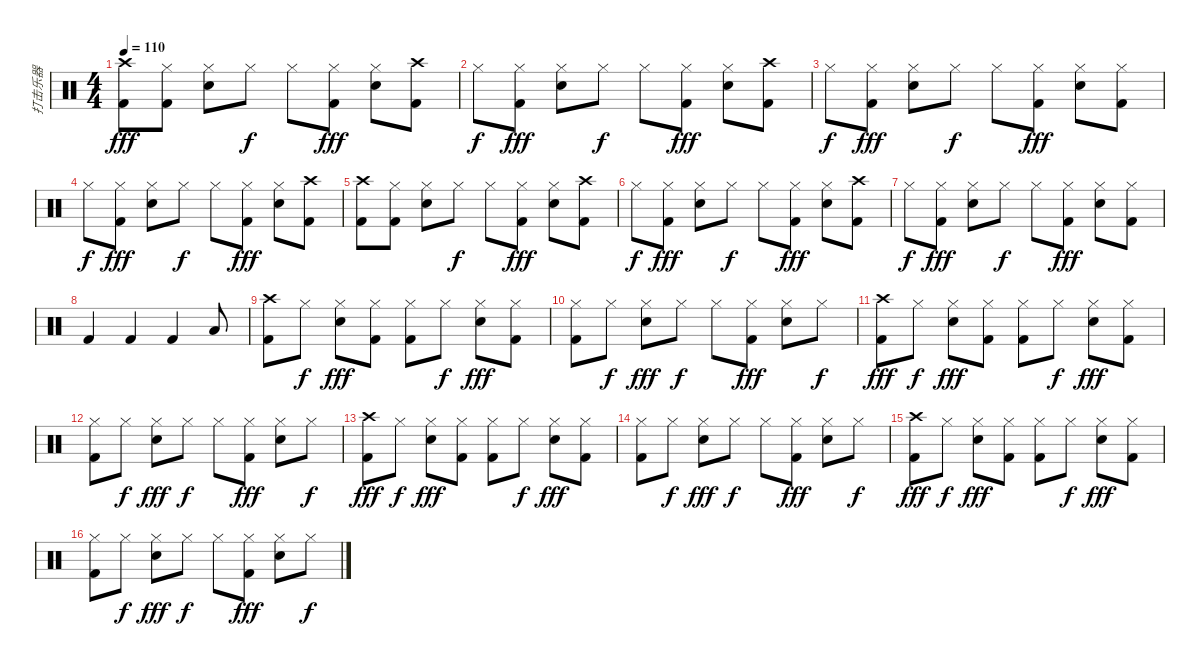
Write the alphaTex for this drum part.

\track ("打击乐器" "打击乐器") {instrument percussion}
\staff {score}
\articulation defaults
\ts (4 4)
\tempo 110
\clef neutral
\ks c
("Crash high (hit)" "Kick (hit) 2").8{dy fff} ("Hi-Hat (closed)" "Kick (hit) 2").8 ("Hi-Hat (closed)" "Electric Snare (hit)").8 "Hi-Hat (closed)".8{dy f} "Hi-Hat (closed)".8 ("Hi-Hat (closed)" "Kick (hit) 2").8{dy fff} ("Hi-Hat (closed)" "Electric Snare (hit)").8 ("Crash high (hit)" "Kick (hit) 2").8 |
"Hi-Hat (closed)".8{dy f} ("Hi-Hat (closed)" "Kick (hit) 2").8{dy fff} ("Hi-Hat (closed)" "Electric Snare (hit)").8 "Hi-Hat (closed)".8{dy f} "Hi-Hat (closed)".8 ("Hi-Hat (closed)" "Kick (hit) 2").8{dy fff} ("Hi-Hat (closed)" "Electric Snare (hit)").8 ("Crash high (hit)" "Kick (hit) 2").8 |
"Hi-Hat (closed)".8{dy f} ("Hi-Hat (closed)" "Kick (hit) 2").8{dy fff} ("Hi-Hat (closed)" "Electric Snare (hit)").8 "Hi-Hat (closed)".8{dy f} "Hi-Hat (closed)".8 ("Hi-Hat (closed)" "Kick (hit) 2").8{dy fff} ("Hi-Hat (closed)" "Electric Snare (hit)").8 ("Hi-Hat (closed)" "Kick (hit) 2").8 |
"Hi-Hat (closed)".8{dy f} ("Hi-Hat (closed)" "Kick (hit) 2").8{dy fff} ("Hi-Hat (closed)" "Electric Snare (hit)").8 "Hi-Hat (closed)".8{dy f} "Hi-Hat (closed)".8 ("Hi-Hat (closed)" "Kick (hit) 2").8{dy fff} ("Hi-Hat (closed)" "Electric Snare (hit)").8 ("Crash high (hit)" "Kick (hit) 2").8 |
("Crash high (hit)" "Kick (hit) 2").8 ("Hi-Hat (closed)" "Kick (hit) 2").8 ("Hi-Hat (closed)" "Electric Snare (hit)").8 "Hi-Hat (closed)".8{dy f} "Hi-Hat (closed)".8 ("Hi-Hat (closed)" "Kick (hit) 2").8{dy fff} ("Hi-Hat (closed)" "Electric Snare (hit)").8 ("Crash high (hit)" "Kick (hit) 2").8 |
"Hi-Hat (closed)".8{dy f} ("Hi-Hat (closed)" "Kick (hit) 2").8{dy fff} ("Hi-Hat (closed)" "Electric Snare (hit)").8 "Hi-Hat (closed)".8{dy f} "Hi-Hat (closed)".8 ("Hi-Hat (closed)" "Kick (hit) 2").8{dy fff} ("Hi-Hat (closed)" "Electric Snare (hit)").8 ("Crash high (hit)" "Kick (hit) 2").8 |
"Hi-Hat (closed)".8{dy f} ("Hi-Hat (closed)" "Kick (hit) 2").8{dy fff} ("Hi-Hat (closed)" "Electric Snare (hit)").8 "Hi-Hat (closed)".8{dy f} "Hi-Hat (closed)".8 ("Hi-Hat (closed)" "Kick (hit) 2").8{dy fff} ("Hi-Hat (closed)" "Electric Snare (hit)").8 ("Hi-Hat (closed)" "Kick (hit) 2").8 |
"Kick (hit) 2".4 "Kick (hit) 2".4 "Kick (hit) 2".4 "Low Floor Tom (hit)".8 |
("Crash high (hit)" "Kick (hit) 2").8 "Hi-Hat (closed)".8{dy f} ("Hi-Hat (closed)" "Electric Snare (hit)").8{dy fff} ("Hi-Hat (closed)" "Kick (hit) 2").8 ("Hi-Hat (closed)" "Kick (hit) 2").8 "Hi-Hat (closed)".8{dy f} ("Hi-Hat (closed)" "Electric Snare (hit)").8{dy fff} ("Hi-Hat (closed)" "Kick (hit) 2").8 |
("Hi-Hat (closed)" "Kick (hit) 2").8 "Hi-Hat (closed)".8{dy f} ("Hi-Hat (closed)" "Electric Snare (hit)").8{dy fff} "Hi-Hat (closed)".8{dy f} "Hi-Hat (closed)".8 ("Hi-Hat (closed)" "Kick (hit) 2").8{dy fff} ("Hi-Hat (closed)" "Electric Snare (hit)").8 "Hi-Hat (closed)".8{dy f} |
("Crash high (hit)" "Kick (hit) 2").8{dy fff} "Hi-Hat (closed)".8{dy f} ("Hi-Hat (closed)" "Electric Snare (hit)").8{dy fff} ("Hi-Hat (closed)" "Kick (hit) 2").8 ("Hi-Hat (closed)" "Kick (hit) 2").8 "Hi-Hat (closed)".8{dy f} ("Hi-Hat (closed)" "Electric Snare (hit)").8{dy fff} ("Hi-Hat (closed)" "Kick (hit) 2").8 |
("Hi-Hat (closed)" "Kick (hit) 2").8 "Hi-Hat (closed)".8{dy f} ("Hi-Hat (closed)" "Electric Snare (hit)").8{dy fff} "Hi-Hat (closed)".8{dy f} "Hi-Hat (closed)".8 ("Hi-Hat (closed)" "Kick (hit) 2").8{dy fff} ("Hi-Hat (closed)" "Electric Snare (hit)").8 "Hi-Hat (closed)".8{dy f} |
("Crash high (hit)" "Kick (hit) 2").8{dy fff} "Hi-Hat (closed)".8{dy f} ("Hi-Hat (closed)" "Electric Snare (hit)").8{dy fff} ("Hi-Hat (closed)" "Kick (hit) 2").8 ("Hi-Hat (closed)" "Kick (hit) 2").8 "Hi-Hat (closed)".8{dy f} ("Hi-Hat (closed)" "Electric Snare (hit)").8{dy fff} ("Hi-Hat (closed)" "Kick (hit) 2").8 |
("Hi-Hat (closed)" "Kick (hit) 2").8 "Hi-Hat (closed)".8{dy f} ("Hi-Hat (closed)" "Electric Snare (hit)").8{dy fff} "Hi-Hat (closed)".8{dy f} "Hi-Hat (closed)".8 ("Hi-Hat (closed)" "Kick (hit) 2").8{dy fff} ("Hi-Hat (closed)" "Electric Snare (hit)").8 "Hi-Hat (closed)".8{dy f} |
("Crash high (hit)" "Kick (hit) 2").8{dy fff} "Hi-Hat (closed)".8{dy f} ("Hi-Hat (closed)" "Electric Snare (hit)").8{dy fff} ("Hi-Hat (closed)" "Kick (hit) 2").8 ("Hi-Hat (closed)" "Kick (hit) 2").8 "Hi-Hat (closed)".8{dy f} ("Hi-Hat (closed)" "Electric Snare (hit)").8{dy fff} ("Hi-Hat (closed)" "Kick (hit) 2").8 |
("Hi-Hat (closed)" "Kick (hit) 2").8 "Hi-Hat (closed)".8{dy f} ("Hi-Hat (closed)" "Electric Snare (hit)").8{dy fff} "Hi-Hat (closed)".8{dy f} "Hi-Hat (closed)".8 ("Hi-Hat (closed)" "Kick (hit) 2").8{dy fff} ("Hi-Hat (closed)" "Electric Snare (hit)").8 "Hi-Hat (closed)".8{dy f}
